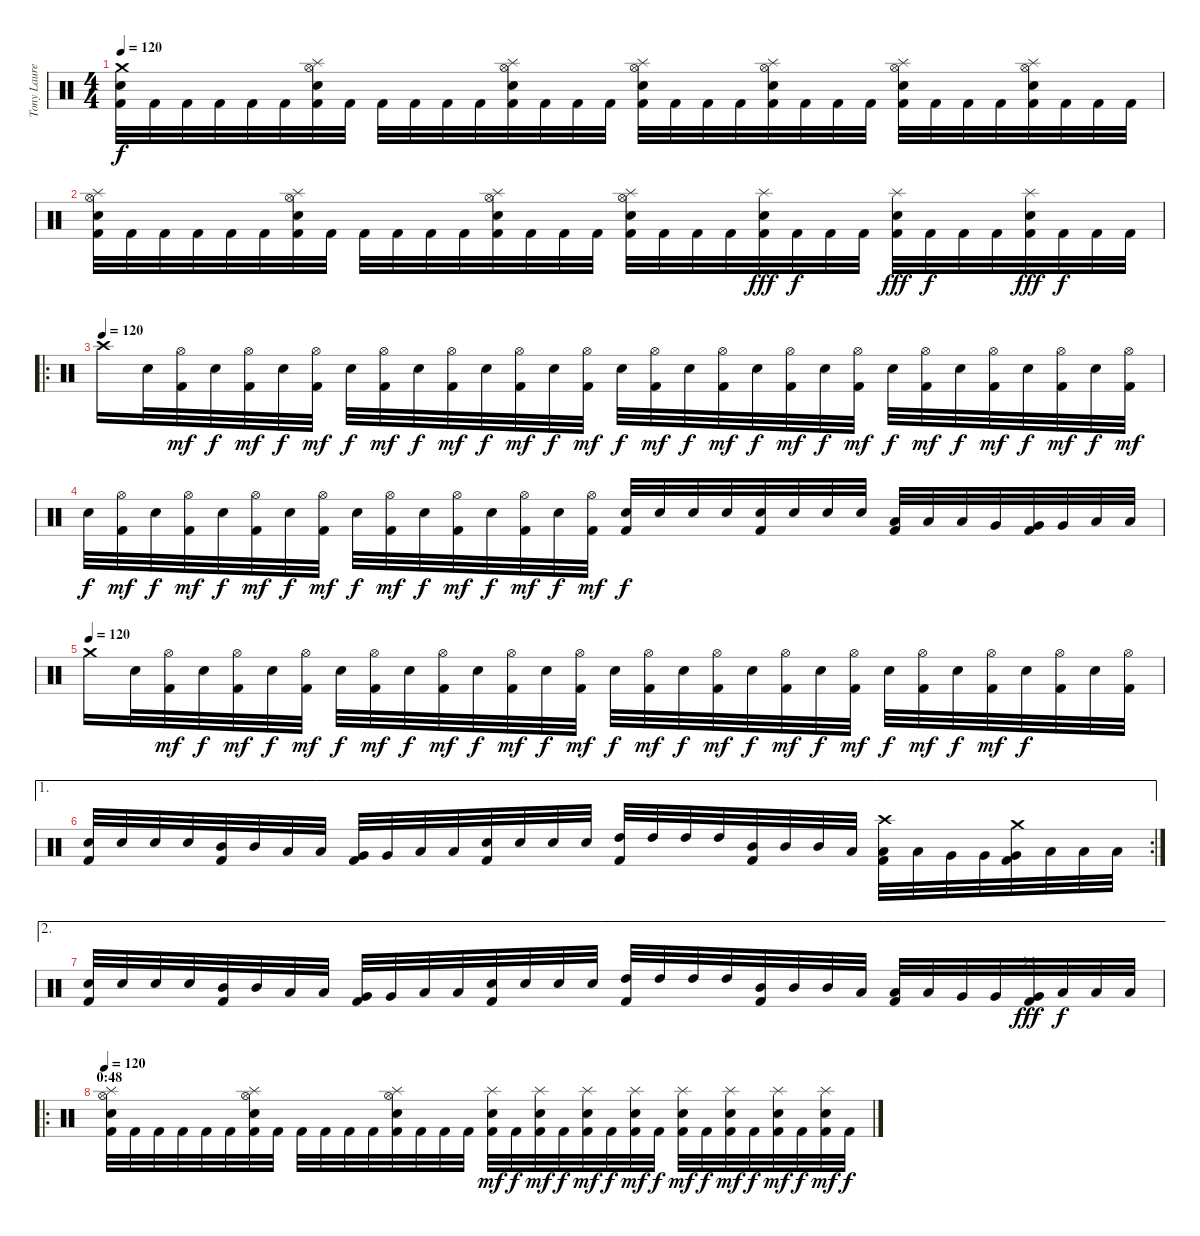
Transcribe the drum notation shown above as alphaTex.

\track ("Tony Laureano" "Tony Laure") {instrument percussion}
\staff {score}
\articulation defaults
\ts (4 4)
\tempo 120
\clef neutral
\ks c
("Crash medium (hit)" "Electric Snare (hit)" "Kick (hit) 2").32{dy f} "Kick (hit) 2".32 "Kick (hit) 2".32 "Kick (hit) 2".32 "Kick (hit) 2".32 "Kick (hit) 2".32 ("Splash (hit)" "Hi-Hat (open)" "Electric Snare (hit)" "Kick (hit) 2").32 "Kick (hit) 2".32 "Kick (hit) 2".32 "Kick (hit) 2".32 "Kick (hit) 2".32 "Kick (hit) 2".32 ("Splash (hit)" "Hi-Hat (open)" "Electric Snare (hit)" "Kick (hit) 2").32 "Kick (hit) 2".32 "Kick (hit) 2".32 "Kick (hit) 2".32 ("Splash (hit)" "Hi-Hat (open)" "Electric Snare (hit)" "Kick (hit) 2").32 "Kick (hit) 2".32 "Kick (hit) 2".32 "Kick (hit) 2".32 ("Splash (hit)" "Hi-Hat (open)" "Electric Snare (hit)" "Kick (hit) 2").32 "Kick (hit) 2".32 "Kick (hit) 2".32 "Kick (hit) 2".32 ("Splash (hit)" "Hi-Hat (open)" "Electric Snare (hit)" "Kick (hit) 2").32 "Kick (hit) 2".32 "Kick (hit) 2".32 "Kick (hit) 2".32 ("Splash (hit)" "Hi-Hat (open)" "Electric Snare (hit)" "Kick (hit) 2").32 "Kick (hit) 2".32 "Kick (hit) 2".32 "Kick (hit) 2".32 |
("Splash (hit)" "Hi-Hat (open)" "Electric Snare (hit)" "Kick (hit) 2").32 "Kick (hit) 2".32 "Kick (hit) 2".32 "Kick (hit) 2".32 "Kick (hit) 2".32 "Kick (hit) 2".32 ("Splash (hit)" "Hi-Hat (open)" "Electric Snare (hit)" "Kick (hit) 2").32 "Kick (hit) 2".32 "Kick (hit) 2".32 "Kick (hit) 2".32 "Kick (hit) 2".32 "Kick (hit) 2".32 ("Splash (hit)" "Hi-Hat (open)" "Electric Snare (hit)" "Kick (hit) 2").32 "Kick (hit) 2".32 "Kick (hit) 2".32 "Kick (hit) 2".32 ("Splash (hit)" "Hi-Hat (open)" "Electric Snare (hit)" "Kick (hit) 2").32 "Kick (hit) 2".32 "Kick (hit) 2".32 "Kick (hit) 2".32 ("Splash (hit)" "Electric Snare (hit)" "Kick (hit) 2").32{dy fff} "Kick (hit) 2".32{dy f} "Kick (hit) 2".32 "Kick (hit) 2".32 ("Splash (hit)" "Electric Snare (hit)" "Kick (hit) 2").32{dy fff} "Kick (hit) 2".32{dy f} "Kick (hit) 2".32 "Kick (hit) 2".32 ("Splash (hit)" "Electric Snare (hit)" "Kick (hit) 2").32{dy fff} "Kick (hit) 2".32{dy f} "Kick (hit) 2".32 "Kick (hit) 2".32 |
\ro
\tempo (120)
"Crash high (hit)".16 "Electric Snare (hit)".32 ("Hi-Hat (open)" "Kick (hit) 2").32{dy mf} "Electric Snare (hit)".32{dy f} ("Hi-Hat (open)" "Kick (hit) 2").32{dy mf} "Electric Snare (hit)".32{dy f} ("Hi-Hat (open)" "Kick (hit) 2").32{dy mf} "Electric Snare (hit)".32{dy f} ("Hi-Hat (open)" "Kick (hit) 2").32{dy mf} "Electric Snare (hit)".32{dy f} ("Hi-Hat (open)" "Kick (hit) 2").32{dy mf} "Electric Snare (hit)".32{dy f} ("Hi-Hat (open)" "Kick (hit) 2").32{dy mf} "Electric Snare (hit)".32{dy f} ("Hi-Hat (open)" "Kick (hit) 2").32{dy mf} "Electric Snare (hit)".32{dy f} ("Hi-Hat (open)" "Kick (hit) 2").32{dy mf} "Electric Snare (hit)".32{dy f} ("Hi-Hat (open)" "Kick (hit) 2").32{dy mf} "Electric Snare (hit)".32{dy f} ("Hi-Hat (open)" "Kick (hit) 2").32{dy mf} "Electric Snare (hit)".32{dy f} ("Hi-Hat (open)" "Kick (hit) 2").32{dy mf} "Electric Snare (hit)".32{dy f} ("Hi-Hat (open)" "Kick (hit) 2").32{dy mf} "Electric Snare (hit)".32{dy f} ("Hi-Hat (open)" "Kick (hit) 2").32{dy mf} "Electric Snare (hit)".32{dy f} ("Hi-Hat (open)" "Kick (hit) 2").32{dy mf} "Electric Snare (hit)".32{dy f} ("Hi-Hat (open)" "Kick (hit) 2").32{dy mf} |
"Electric Snare (hit)".32{dy f} ("Hi-Hat (open)" "Kick (hit) 2").32{dy mf} "Electric Snare (hit)".32{dy f} ("Hi-Hat (open)" "Kick (hit) 2").32{dy mf} "Electric Snare (hit)".32{dy f} ("Hi-Hat (open)" "Kick (hit) 2").32{dy mf} "Electric Snare (hit)".32{dy f} ("Hi-Hat (open)" "Kick (hit) 2").32{dy mf} "Electric Snare (hit)".32{dy f} ("Hi-Hat (open)" "Kick (hit) 2").32{dy mf} "Electric Snare (hit)".32{dy f} ("Hi-Hat (open)" "Kick (hit) 2").32{dy mf} "Electric Snare (hit)".32{dy f} ("Hi-Hat (open)" "Kick (hit) 2").32{dy mf} "Electric Snare (hit)".32{dy f} ("Hi-Hat (open)" "Kick (hit) 2").32{dy mf} ("Electric Snare (hit)" "Kick (hit) 2").32{dy f} "Electric Snare (hit)".32 "Electric Snare (hit)".32 "Electric Snare (hit)".32 ("Electric Snare (hit)" "Kick (hit) 2").32 "Electric Snare (hit)".32 "Electric Snare (hit)".32 "Electric Snare (hit)".32 ("Low Tom (hit)" "Kick (hit) 2").32 "Low Tom (hit)".32 "Low Tom (hit)".32 "Very Low Tom (hit)".32 ("Very Low Tom (hit)" "Kick (hit) 2").32 "Very Low Tom (hit)".32 "Low Floor Tom (hit)".32 "Low Floor Tom (hit)".32 |
\tempo (120)
"Crash medium (hit)".16 "Electric Snare (hit)".32 ("Hi-Hat (open)" "Kick (hit) 2").32{dy mf} "Electric Snare (hit)".32{dy f} ("Hi-Hat (open)" "Kick (hit) 2").32{dy mf} "Electric Snare (hit)".32{dy f} ("Hi-Hat (open)" "Kick (hit) 2").32{dy mf} "Electric Snare (hit)".32{dy f} ("Hi-Hat (open)" "Kick (hit) 2").32{dy mf} "Electric Snare (hit)".32{dy f} ("Hi-Hat (open)" "Kick (hit) 2").32{dy mf} "Electric Snare (hit)".32{dy f} ("Hi-Hat (open)" "Kick (hit) 2").32{dy mf} "Electric Snare (hit)".32{dy f} ("Hi-Hat (open)" "Kick (hit) 2").32{dy mf} "Electric Snare (hit)".32{dy f} ("Hi-Hat (open)" "Kick (hit) 2").32{dy mf} "Electric Snare (hit)".32{dy f} ("Hi-Hat (open)" "Kick (hit) 2").32{dy mf} "Electric Snare (hit)".32{dy f} ("Hi-Hat (open)" "Kick (hit) 2").32{dy mf} "Electric Snare (hit)".32{dy f} ("Hi-Hat (open)" "Kick (hit) 2").32{dy mf} "Electric Snare (hit)".32{dy f} ("Hi-Hat (open)" "Kick (hit) 2").32{dy mf} "Electric Snare (hit)".32{dy f} ("Hi-Hat (open)" "Kick (hit) 2").32{dy mf} "Electric Snare (hit)".32{dy f} ("Hi-Hat (open)" "Kick (hit) 2").32 "Electric Snare (hit)".32 ("Hi-Hat (open)" "Kick (hit) 2").32 |
\ae 1
\rc 2
("Electric Snare (hit)" "Kick (hit) 2").32 "Electric Snare (hit)".32 "Electric Snare (hit)".32 "Electric Snare (hit)".32 ("Mid Tom (hit)" "Kick (hit) 2").32 "Mid Tom (hit)".32 "Low Tom (hit)".32 "Low Tom (hit)".32 ("Very Low Tom (hit)" "Kick (hit) 2").32 "Very Low Tom (hit)".32 "Low Floor Tom (hit)".32 "Low Floor Tom (hit)".32 ("Electric Snare (hit)" "Kick (hit) 2").32 "Electric Snare (hit)".32 "Electric Snare (hit)".32 "Electric Snare (hit)".32 ("High Tom (hit)" "Kick (hit) 2").32 "High Tom (hit)".32 "High Tom (hit)".32 "High Tom (hit)".32 ("Mid Tom (hit)" "Kick (hit) 2").32 "Mid Tom (hit)".32 "Mid Tom (hit)".32 "Low Tom (hit)".32 ("Crash high (hit)" "Low Tom (hit)" "Kick (hit) 2").32 "Low Tom (hit)".32 "Very Low Tom (hit)".32 "Very Low Tom (hit)".32 ("Crash medium (hit)" "Very Low Tom (hit)" "Kick (hit) 2").32 "Low Floor Tom (hit)".32 "Low Floor Tom (hit)".32 "Low Floor Tom (hit)".32 |
\ae 2
("Electric Snare (hit)" "Kick (hit) 2").32 "Electric Snare (hit)".32 "Electric Snare (hit)".32 "Electric Snare (hit)".32 ("Mid Tom (hit)" "Kick (hit) 2").32 "Mid Tom (hit)".32 "Low Tom (hit)".32 "Low Tom (hit)".32 ("Very Low Tom (hit)" "Kick (hit) 2").32 "Very Low Tom (hit)".32 "Low Floor Tom (hit)".32 "Low Floor Tom (hit)".32 ("Electric Snare (hit)" "Kick (hit) 2").32 "Electric Snare (hit)".32 "Electric Snare (hit)".32 "Electric Snare (hit)".32 ("High Tom (hit)" "Kick (hit) 2").32 "High Tom (hit)".32 "High Tom (hit)".32 "High Tom (hit)".32 ("Mid Tom (hit)" "Kick (hit) 2").32 "Mid Tom (hit)".32 "Mid Tom (hit)".32 "Low Tom (hit)".32 ("Low Tom (hit)" "Kick (hit) 2").32 "Low Tom (hit)".32 "Very Low Tom (hit)".32 "Very Low Tom (hit)".32 ("Splash (hit)" "Very Low Tom (hit)" "Kick (hit) 2").32{dy fff} "Low Floor Tom (hit)".32{dy f} "Low Floor Tom (hit)".32 "Low Floor Tom (hit)".32 |
\ro
\section ("" "0:48")
\tempo 120
("Splash (hit)" "Hi-Hat (open)" "Electric Snare (hit)" "Kick (hit) 2").32 "Kick (hit) 2".32 "Kick (hit) 2".32 "Kick (hit) 2".32 "Kick (hit) 2".32 "Kick (hit) 2".32 ("Splash (hit)" "Hi-Hat (open)" "Electric Snare (hit)" "Kick (hit) 2").32 "Kick (hit) 2".32 "Kick (hit) 2".32 "Kick (hit) 2".32 "Kick (hit) 2".32 "Kick (hit) 2".32 ("Splash (hit)" "Hi-Hat (open)" "Electric Snare (hit)" "Kick (hit) 2").32 "Kick (hit) 2".32 "Kick (hit) 2".32 "Kick (hit) 2".32 ("Splash (hit)" "Electric Snare (hit)" "Kick (hit) 2").32{dy mf} "Kick (hit) 2".32{dy f} ("Splash (hit)" "Electric Snare (hit)" "Kick (hit) 2").32{dy mf} "Kick (hit) 2".32{dy f} ("Splash (hit)" "Electric Snare (hit)" "Kick (hit) 2").32{dy mf} "Kick (hit) 2".32{dy f} ("Splash (hit)" "Electric Snare (hit)" "Kick (hit) 2").32{dy mf} "Kick (hit) 2".32{dy f} ("Splash (hit)" "Electric Snare (hit)" "Kick (hit) 2").32{dy mf} "Kick (hit) 2".32{dy f} ("Splash (hit)" "Electric Snare (hit)" "Kick (hit) 2").32{dy mf} "Kick (hit) 2".32{dy f} ("Splash (hit)" "Electric Snare (hit)" "Kick (hit) 2").32{dy mf} "Kick (hit) 2".32{dy f} ("Splash (hit)" "Electric Snare (hit)" "Kick (hit) 2").32{dy mf} "Kick (hit) 2".32{dy f}
